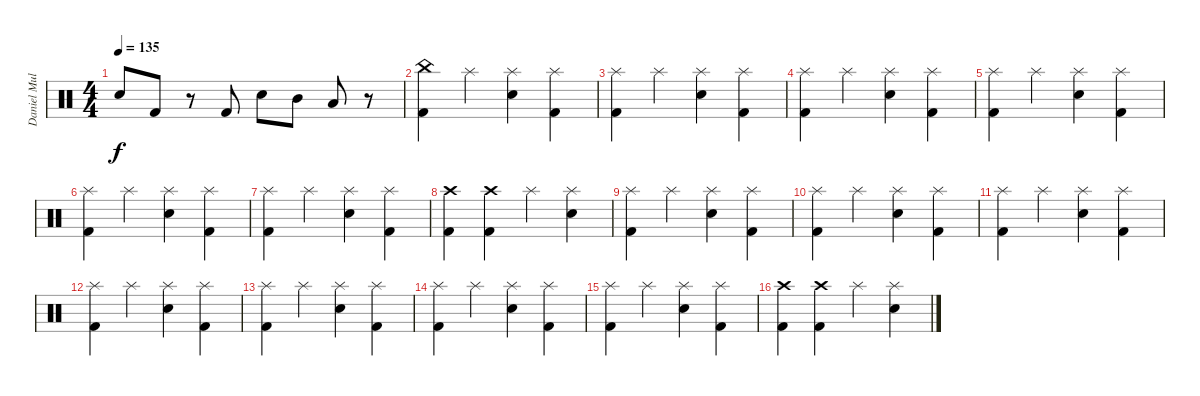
\track ("Daniel Mullback" "Daniel Mul") {instrument percussion}
\staff {score}
\articulation defaults
\ts (4 4)
\tempo 135
\clef neutral
\ks c "Snare (hit) 2".8{dy f} "Kick (hit) 2".8
r.8 "Kick (hit) 2".8 "Snare (hit) 2".8 "Mid Tom (hit)".8 "Low Tom (hit)".8 r.8 |
("China (hit)" "Kick (hit) 2").4 "Splash (hit)".4 ("Splash (hit)" "Snare (hit) 2").4 ("Splash (hit)" "Kick (hit) 2").4 |
("Splash (hit)" "Kick (hit) 2").4 "Splash (hit)".4 ("Splash (hit)" "Snare (hit) 2").4 ("Splash (hit)" "Kick (hit) 2").4 |
("Splash (hit)" "Kick (hit) 2").4 "Splash (hit)".4 ("Splash (hit)" "Snare (hit) 2").4 ("Splash (hit)" "Kick (hit) 2").4 |
("Splash (hit)" "Kick (hit) 2").4 "Splash (hit)".4 ("Splash (hit)" "Snare (hit) 2").4 ("Splash (hit)" "Kick (hit) 2").4 |
("Splash (hit)" "Kick (hit) 2").4 "Splash (hit)".4 ("Splash (hit)" "Snare (hit) 2").4 ("Splash (hit)" "Kick (hit) 2").4 |
("Splash (hit)" "Kick (hit) 2").4 "Splash (hit)".4 ("Splash (hit)" "Snare (hit) 2").4 ("Splash (hit)" "Kick (hit) 2").4 |
("Crash high (hit)" "Kick (hit) 2").4 ("Crash high (hit)" "Kick (hit) 2").4 "Splash (hit)".4 ("Splash (hit)" "Snare (hit) 2").4 |
("Splash (hit)" "Kick (hit) 2").4 "Splash (hit)".4 ("Splash (hit)" "Snare (hit) 2").4 ("Splash (hit)" "Kick (hit) 2").4 |
("Splash (hit)" "Kick (hit) 2").4 "Splash (hit)".4 ("Splash (hit)" "Snare (hit) 2").4 ("Splash (hit)" "Kick (hit) 2").4 |
("Splash (hit)" "Kick (hit) 2").4 "Splash (hit)".4 ("Splash (hit)" "Snare (hit) 2").4 ("Splash (hit)" "Kick (hit) 2").4 |
("Splash (hit)" "Kick (hit) 2").4 "Splash (hit)".4 ("Splash (hit)" "Snare (hit) 2").4 ("Splash (hit)" "Kick (hit) 2").4 |
("Splash (hit)" "Kick (hit) 2").4 "Splash (hit)".4 ("Splash (hit)" "Snare (hit) 2").4 ("Splash (hit)" "Kick (hit) 2").4 |
("Splash (hit)" "Kick (hit) 2").4 "Splash (hit)".4 ("Splash (hit)" "Snare (hit) 2").4 ("Splash (hit)" "Kick (hit) 2").4 |
("Splash (hit)" "Kick (hit) 2").4 "Splash (hit)".4 ("Splash (hit)" "Snare (hit) 2").4 ("Splash (hit)" "Kick (hit) 2").4 |
("Crash high (hit)" "Kick (hit) 2").4 ("Crash high (hit)" "Kick (hit) 2").4 "Splash (hit)".4 ("Splash (hit)" "Snare (hit) 2").4
